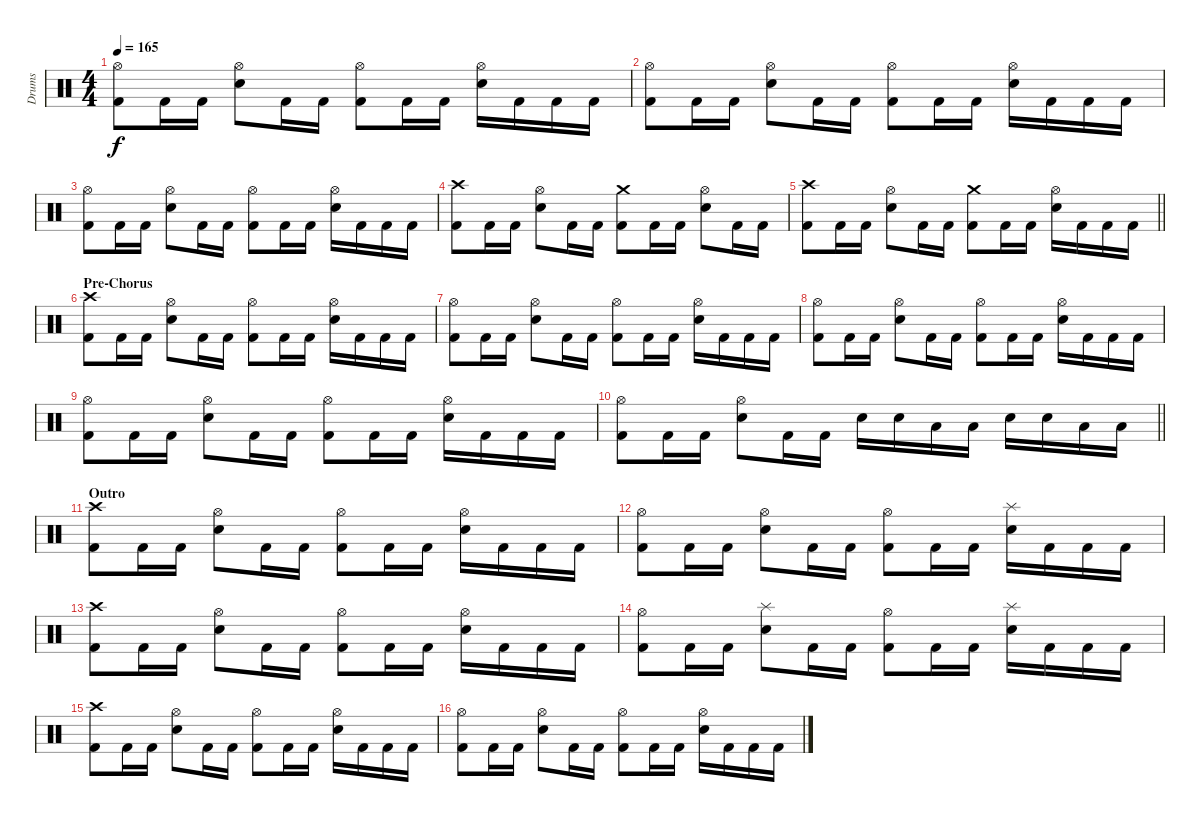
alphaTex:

\track ("Drums" "Drums") {instrument percussion}
\staff {score}
\articulation defaults
\ts (4 4)
\tempo 165
\clef neutral
\ks c
("Hi-Hat (open)" "Kick (hit) 2").8{dy f} "Kick (hit) 2".16 "Kick (hit) 2".16 ("Hi-Hat (open)" "Snare (hit) 2").8 "Kick (hit) 2".16 "Kick (hit) 2".16 ("Hi-Hat (open)" "Kick (hit) 2").8 "Kick (hit) 2".16 "Kick (hit) 2".16 ("Hi-Hat (open)" "Snare (hit) 2").16 "Kick (hit) 2".16 "Kick (hit) 2".16 "Kick (hit) 2".16 |
("Hi-Hat (open)" "Kick (hit) 2").8 "Kick (hit) 2".16 "Kick (hit) 2".16 ("Hi-Hat (open)" "Snare (hit) 2").8 "Kick (hit) 2".16 "Kick (hit) 2".16 ("Hi-Hat (open)" "Kick (hit) 2").8 "Kick (hit) 2".16 "Kick (hit) 2".16 ("Hi-Hat (open)" "Snare (hit) 2").16 "Kick (hit) 2".16 "Kick (hit) 2".16 "Kick (hit) 2".16 |
("Hi-Hat (open)" "Kick (hit) 2").8 "Kick (hit) 2".16 "Kick (hit) 2".16 ("Hi-Hat (open)" "Snare (hit) 2").8 "Kick (hit) 2".16 "Kick (hit) 2".16 ("Hi-Hat (open)" "Kick (hit) 2").8 "Kick (hit) 2".16 "Kick (hit) 2".16 ("Hi-Hat (open)" "Snare (hit) 2").16 "Kick (hit) 2".16 "Kick (hit) 2".16 "Kick (hit) 2".16 |
("Crash high (hit)" "Kick (hit) 2").8 "Kick (hit) 2".16 "Kick (hit) 2".16 ("Hi-Hat (open)" "Snare (hit) 2").8 "Kick (hit) 2".16 "Kick (hit) 2".16 ("Crash medium (hit)" "Kick (hit) 2").8 "Kick (hit) 2".16 "Kick (hit) 2".16 ("Hi-Hat (open)" "Snare (hit) 2").8 "Kick (hit) 2".16 "Kick (hit) 2".16 |
\barLineRight lightlight
("Crash high (hit)" "Kick (hit) 2").8 "Kick (hit) 2".16 "Kick (hit) 2".16 ("Hi-Hat (open)" "Snare (hit) 2").8 "Kick (hit) 2".16 "Kick (hit) 2".16 ("Crash medium (hit)" "Kick (hit) 2").8 "Kick (hit) 2".16 "Kick (hit) 2".16 ("Hi-Hat (open)" "Snare (hit) 2").16 "Kick (hit) 2".16 "Kick (hit) 2".16 "Kick (hit) 2".16 |
\section ("" "Pre-Chorus")
("Crash high (hit)" "Kick (hit) 2").8 "Kick (hit) 2".16 "Kick (hit) 2".16 ("Hi-Hat (open)" "Snare (hit) 2").8 "Kick (hit) 2".16 "Kick (hit) 2".16 ("Hi-Hat (open)" "Kick (hit) 2").8 "Kick (hit) 2".16 "Kick (hit) 2".16 ("Hi-Hat (open)" "Snare (hit) 2").16 "Kick (hit) 2".16 "Kick (hit) 2".16 "Kick (hit) 2".16 |
("Hi-Hat (open)" "Kick (hit) 2").8 "Kick (hit) 2".16 "Kick (hit) 2".16 ("Hi-Hat (open)" "Snare (hit) 2").8 "Kick (hit) 2".16 "Kick (hit) 2".16 ("Hi-Hat (open)" "Kick (hit) 2").8 "Kick (hit) 2".16 "Kick (hit) 2".16 ("Hi-Hat (open)" "Snare (hit) 2").16 "Kick (hit) 2".16 "Kick (hit) 2".16 "Kick (hit) 2".16 |
("Hi-Hat (open)" "Kick (hit) 2").8 "Kick (hit) 2".16 "Kick (hit) 2".16 ("Hi-Hat (open)" "Snare (hit) 2").8 "Kick (hit) 2".16 "Kick (hit) 2".16 ("Hi-Hat (open)" "Kick (hit) 2").8 "Kick (hit) 2".16 "Kick (hit) 2".16 ("Hi-Hat (open)" "Snare (hit) 2").16 "Kick (hit) 2".16 "Kick (hit) 2".16 "Kick (hit) 2".16 |
("Hi-Hat (open)" "Kick (hit) 2").8 "Kick (hit) 2".16 "Kick (hit) 2".16 ("Hi-Hat (open)" "Snare (hit) 2").8 "Kick (hit) 2".16 "Kick (hit) 2".16 ("Hi-Hat (open)" "Kick (hit) 2").8 "Kick (hit) 2".16 "Kick (hit) 2".16 ("Hi-Hat (open)" "Snare (hit) 2").16 "Kick (hit) 2".16 "Kick (hit) 2".16 "Kick (hit) 2".16 |
\barLineRight lightlight
("Hi-Hat (open)" "Kick (hit) 2").8 "Kick (hit) 2".16 "Kick (hit) 2".16 ("Hi-Hat (open)" "Snare (hit) 2").8 "Kick (hit) 2".16 "Kick (hit) 2".16 "Snare (hit) 2".16 "Snare (hit) 2".16 "Low Tom (hit)".16 "Low Tom (hit)".16 "Snare (hit) 2".16 "Snare (hit) 2".16 "Low Tom (hit)".16 "Low Tom (hit)".16 |
\section ("" "Outro")
("Crash high (hit)" "Kick (hit) 2").8 "Kick (hit) 2".16 "Kick (hit) 2".16 ("Hi-Hat (open)" "Snare (hit) 2").8 "Kick (hit) 2".16 "Kick (hit) 2".16 ("Hi-Hat (open)" "Kick (hit) 2").8 "Kick (hit) 2".16 "Kick (hit) 2".16 ("Hi-Hat (open)" "Snare (hit) 2").16 "Kick (hit) 2".16 "Kick (hit) 2".16 "Kick (hit) 2".16 |
("Hi-Hat (open)" "Kick (hit) 2").8 "Kick (hit) 2".16 "Kick (hit) 2".16 ("Hi-Hat (open)" "Snare (hit) 2").8 "Kick (hit) 2".16 "Kick (hit) 2".16 ("Hi-Hat (open)" "Kick (hit) 2").8 "Kick (hit) 2".16 "Kick (hit) 2".16 ("Splash (hit)" "Snare (hit) 2").16 "Kick (hit) 2".16 "Kick (hit) 2".16 "Kick (hit) 2".16 |
("Crash high (hit)" "Kick (hit) 2").8 "Kick (hit) 2".16 "Kick (hit) 2".16 ("Hi-Hat (open)" "Snare (hit) 2").8 "Kick (hit) 2".16 "Kick (hit) 2".16 ("Hi-Hat (open)" "Kick (hit) 2").8 "Kick (hit) 2".16 "Kick (hit) 2".16 ("Hi-Hat (open)" "Snare (hit) 2").16 "Kick (hit) 2".16 "Kick (hit) 2".16 "Kick (hit) 2".16 |
("Hi-Hat (open)" "Kick (hit) 2").8 "Kick (hit) 2".16 "Kick (hit) 2".16 ("Splash (hit)" "Snare (hit) 2").8 "Kick (hit) 2".16 "Kick (hit) 2".16 ("Hi-Hat (open)" "Kick (hit) 2").8 "Kick (hit) 2".16 "Kick (hit) 2".16 ("Splash (hit)" "Snare (hit) 2").16 "Kick (hit) 2".16 "Kick (hit) 2".16 "Kick (hit) 2".16 |
("Crash high (hit)" "Kick (hit) 2").8 "Kick (hit) 2".16 "Kick (hit) 2".16 ("Hi-Hat (open)" "Snare (hit) 2").8 "Kick (hit) 2".16 "Kick (hit) 2".16 ("Hi-Hat (open)" "Kick (hit) 2").8 "Kick (hit) 2".16 "Kick (hit) 2".16 ("Hi-Hat (open)" "Snare (hit) 2").16 "Kick (hit) 2".16 "Kick (hit) 2".16 "Kick (hit) 2".16 |
("Hi-Hat (open)" "Kick (hit) 2").8 "Kick (hit) 2".16 "Kick (hit) 2".16 ("Hi-Hat (open)" "Snare (hit) 2").8 "Kick (hit) 2".16 "Kick (hit) 2".16 ("Hi-Hat (open)" "Kick (hit) 2").8 "Kick (hit) 2".16 "Kick (hit) 2".16 ("Hi-Hat (open)" "Snare (hit) 2").16 "Kick (hit) 2".16 "Kick (hit) 2".16 "Kick (hit) 2".16
